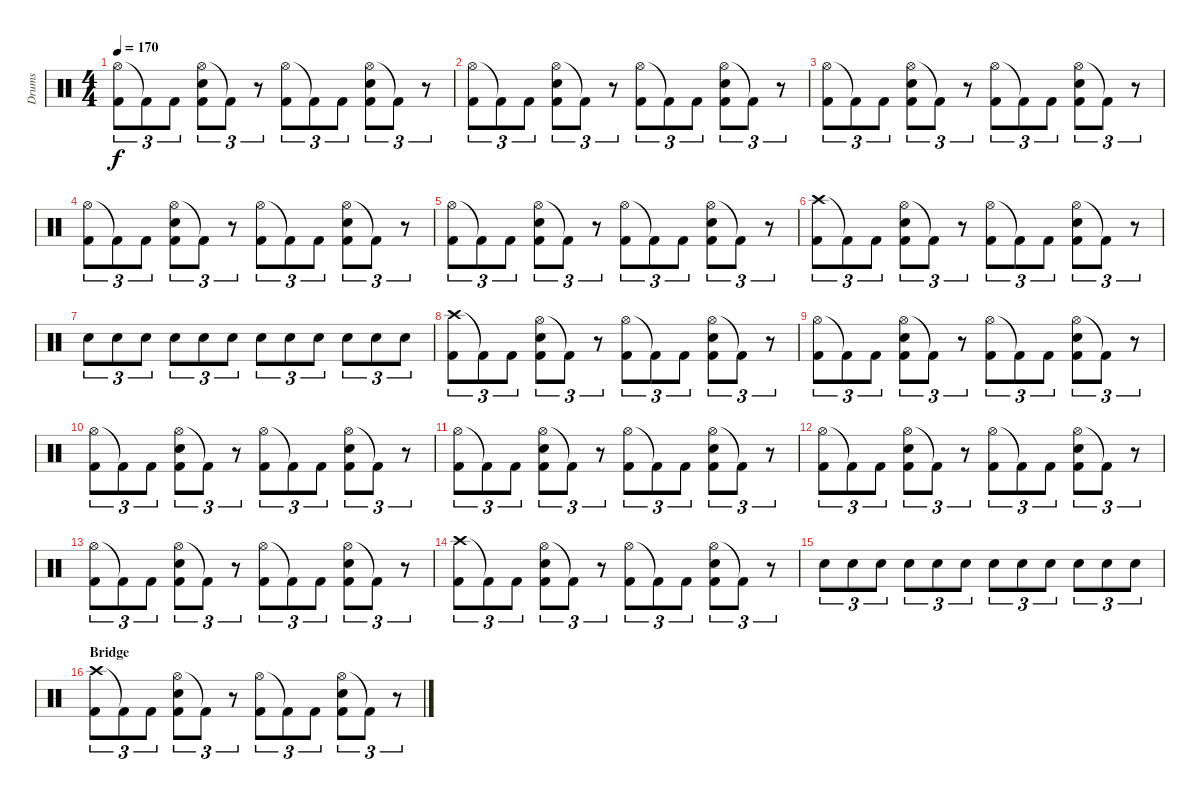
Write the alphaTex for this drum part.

\track ("Drums" "Drums") {instrument percussion}
\staff {score}
\articulation defaults
\ts (4 4)
\tempo 170
\clef neutral
\ks c
("Hi-Hat (open)" "Kick (hit) 2").8{tu (3 2) dy f} "Kick (hit) 2"{t}.8{tu (3 2)} "Kick (hit) 2".8{tu (3 2)} ("Hi-Hat (open)" "Snare (hit) 2" "Kick (hit) 2").8{tu (3 2)} "Kick (hit) 2"{t}.8{tu (3 2)} r.8{tu (3 2)} ("Hi-Hat (open)" "Kick (hit) 2").8{tu (3 2)} "Kick (hit) 2"{t}.8{tu (3 2)} "Kick (hit) 2".8{tu (3 2)} ("Hi-Hat (open)" "Snare (hit) 2" "Kick (hit) 2").8{tu (3 2)} "Kick (hit) 2"{t}.8{tu (3 2)} r.8{tu (3 2)} |
("Hi-Hat (open)" "Kick (hit) 2").8{tu (3 2)} "Kick (hit) 2"{t}.8{tu (3 2)} "Kick (hit) 2".8{tu (3 2)} ("Hi-Hat (open)" "Snare (hit) 2" "Kick (hit) 2").8{tu (3 2)} "Kick (hit) 2"{t}.8{tu (3 2)} r.8{tu (3 2)} ("Hi-Hat (open)" "Kick (hit) 2").8{tu (3 2)} "Kick (hit) 2"{t}.8{tu (3 2)} "Kick (hit) 2".8{tu (3 2)} ("Hi-Hat (open)" "Snare (hit) 2" "Kick (hit) 2").8{tu (3 2)} "Kick (hit) 2"{t}.8{tu (3 2)} r.8{tu (3 2)} |
("Hi-Hat (open)" "Kick (hit) 2").8{tu (3 2)} "Kick (hit) 2"{t}.8{tu (3 2)} "Kick (hit) 2".8{tu (3 2)} ("Hi-Hat (open)" "Snare (hit) 2" "Kick (hit) 2").8{tu (3 2)} "Kick (hit) 2"{t}.8{tu (3 2)} r.8{tu (3 2)} ("Hi-Hat (open)" "Kick (hit) 2").8{tu (3 2)} "Kick (hit) 2"{t}.8{tu (3 2)} "Kick (hit) 2".8{tu (3 2)} ("Hi-Hat (open)" "Snare (hit) 2" "Kick (hit) 2").8{tu (3 2)} "Kick (hit) 2"{t}.8{tu (3 2)} r.8{tu (3 2)} |
("Hi-Hat (open)" "Kick (hit) 2").8{tu (3 2)} "Kick (hit) 2"{t}.8{tu (3 2)} "Kick (hit) 2".8{tu (3 2)} ("Hi-Hat (open)" "Snare (hit) 2" "Kick (hit) 2").8{tu (3 2)} "Kick (hit) 2"{t}.8{tu (3 2)} r.8{tu (3 2)} ("Hi-Hat (open)" "Kick (hit) 2").8{tu (3 2)} "Kick (hit) 2"{t}.8{tu (3 2)} "Kick (hit) 2".8{tu (3 2)} ("Hi-Hat (open)" "Snare (hit) 2" "Kick (hit) 2").8{tu (3 2)} "Kick (hit) 2"{t}.8{tu (3 2)} r.8{tu (3 2)} |
("Hi-Hat (open)" "Kick (hit) 2").8{tu (3 2)} "Kick (hit) 2"{t}.8{tu (3 2)} "Kick (hit) 2".8{tu (3 2)} ("Hi-Hat (open)" "Snare (hit) 2" "Kick (hit) 2").8{tu (3 2)} "Kick (hit) 2"{t}.8{tu (3 2)} r.8{tu (3 2)} ("Hi-Hat (open)" "Kick (hit) 2").8{tu (3 2)} "Kick (hit) 2"{t}.8{tu (3 2)} "Kick (hit) 2".8{tu (3 2)} ("Hi-Hat (open)" "Snare (hit) 2" "Kick (hit) 2").8{tu (3 2)} "Kick (hit) 2"{t}.8{tu (3 2)} r.8{tu (3 2)} |
("Crash high (hit)" "Kick (hit) 2").8{tu (3 2)} "Kick (hit) 2"{t}.8{tu (3 2)} "Kick (hit) 2".8{tu (3 2)} ("Hi-Hat (open)" "Snare (hit) 2" "Kick (hit) 2").8{tu (3 2)} "Kick (hit) 2"{t}.8{tu (3 2)} r.8{tu (3 2)} ("Hi-Hat (open)" "Kick (hit) 2").8{tu (3 2)} "Kick (hit) 2"{t}.8{tu (3 2)} "Kick (hit) 2".8{tu (3 2)} ("Hi-Hat (open)" "Snare (hit) 2" "Kick (hit) 2").8{tu (3 2)} "Kick (hit) 2"{t}.8{tu (3 2)} r.8{tu (3 2)} |
"Snare (hit) 2".8{tu (3 2)} "Snare (hit) 2".8{tu (3 2)} "Snare (hit) 2".8{tu (3 2)} "Snare (hit) 2".8{tu (3 2)} "Snare (hit) 2".8{tu (3 2)} "Snare (hit) 2".8{tu (3 2)} "Snare (hit) 2".8{tu (3 2)} "Snare (hit) 2".8{tu (3 2)} "Snare (hit) 2".8{tu (3 2)} "Snare (hit) 2".8{tu (3 2)} "Snare (hit) 2".8{tu (3 2)} "Snare (hit) 2".8{tu (3 2)} |
("Crash high (hit)" "Kick (hit) 2").8{tu (3 2)} "Kick (hit) 2"{t}.8{tu (3 2)} "Kick (hit) 2".8{tu (3 2)} ("Hi-Hat (open)" "Snare (hit) 2" "Kick (hit) 2").8{tu (3 2)} "Kick (hit) 2"{t}.8{tu (3 2)} r.8{tu (3 2)} ("Hi-Hat (open)" "Kick (hit) 2").8{tu (3 2)} "Kick (hit) 2"{t}.8{tu (3 2)} "Kick (hit) 2".8{tu (3 2)} ("Hi-Hat (open)" "Snare (hit) 2" "Kick (hit) 2").8{tu (3 2)} "Kick (hit) 2"{t}.8{tu (3 2)} r.8{tu (3 2)} |
("Hi-Hat (open)" "Kick (hit) 2").8{tu (3 2)} "Kick (hit) 2"{t}.8{tu (3 2)} "Kick (hit) 2".8{tu (3 2)} ("Hi-Hat (open)" "Snare (hit) 2" "Kick (hit) 2").8{tu (3 2)} "Kick (hit) 2"{t}.8{tu (3 2)} r.8{tu (3 2)} ("Hi-Hat (open)" "Kick (hit) 2").8{tu (3 2)} "Kick (hit) 2"{t}.8{tu (3 2)} "Kick (hit) 2".8{tu (3 2)} ("Hi-Hat (open)" "Snare (hit) 2" "Kick (hit) 2").8{tu (3 2)} "Kick (hit) 2"{t}.8{tu (3 2)} r.8{tu (3 2)} |
("Hi-Hat (open)" "Kick (hit) 2").8{tu (3 2)} "Kick (hit) 2"{t}.8{tu (3 2)} "Kick (hit) 2".8{tu (3 2)} ("Hi-Hat (open)" "Snare (hit) 2" "Kick (hit) 2").8{tu (3 2)} "Kick (hit) 2"{t}.8{tu (3 2)} r.8{tu (3 2)} ("Hi-Hat (open)" "Kick (hit) 2").8{tu (3 2)} "Kick (hit) 2"{t}.8{tu (3 2)} "Kick (hit) 2".8{tu (3 2)} ("Hi-Hat (open)" "Snare (hit) 2" "Kick (hit) 2").8{tu (3 2)} "Kick (hit) 2"{t}.8{tu (3 2)} r.8{tu (3 2)} |
("Hi-Hat (open)" "Kick (hit) 2").8{tu (3 2)} "Kick (hit) 2"{t}.8{tu (3 2)} "Kick (hit) 2".8{tu (3 2)} ("Hi-Hat (open)" "Snare (hit) 2" "Kick (hit) 2").8{tu (3 2)} "Kick (hit) 2"{t}.8{tu (3 2)} r.8{tu (3 2)} ("Hi-Hat (open)" "Kick (hit) 2").8{tu (3 2)} "Kick (hit) 2"{t}.8{tu (3 2)} "Kick (hit) 2".8{tu (3 2)} ("Hi-Hat (open)" "Snare (hit) 2" "Kick (hit) 2").8{tu (3 2)} "Kick (hit) 2"{t}.8{tu (3 2)} r.8{tu (3 2)} |
("Hi-Hat (open)" "Kick (hit) 2").8{tu (3 2)} "Kick (hit) 2"{t}.8{tu (3 2)} "Kick (hit) 2".8{tu (3 2)} ("Hi-Hat (open)" "Snare (hit) 2" "Kick (hit) 2").8{tu (3 2)} "Kick (hit) 2"{t}.8{tu (3 2)} r.8{tu (3 2)} ("Hi-Hat (open)" "Kick (hit) 2").8{tu (3 2)} "Kick (hit) 2"{t}.8{tu (3 2)} "Kick (hit) 2".8{tu (3 2)} ("Hi-Hat (open)" "Snare (hit) 2" "Kick (hit) 2").8{tu (3 2)} "Kick (hit) 2"{t}.8{tu (3 2)} r.8{tu (3 2)} |
("Hi-Hat (open)" "Kick (hit) 2").8{tu (3 2)} "Kick (hit) 2"{t}.8{tu (3 2)} "Kick (hit) 2".8{tu (3 2)} ("Hi-Hat (open)" "Snare (hit) 2" "Kick (hit) 2").8{tu (3 2)} "Kick (hit) 2"{t}.8{tu (3 2)} r.8{tu (3 2)} ("Hi-Hat (open)" "Kick (hit) 2").8{tu (3 2)} "Kick (hit) 2"{t}.8{tu (3 2)} "Kick (hit) 2".8{tu (3 2)} ("Hi-Hat (open)" "Snare (hit) 2" "Kick (hit) 2").8{tu (3 2)} "Kick (hit) 2"{t}.8{tu (3 2)} r.8{tu (3 2)} |
("Crash high (hit)" "Kick (hit) 2").8{tu (3 2)} "Kick (hit) 2"{t}.8{tu (3 2)} "Kick (hit) 2".8{tu (3 2)} ("Hi-Hat (open)" "Snare (hit) 2" "Kick (hit) 2").8{tu (3 2)} "Kick (hit) 2"{t}.8{tu (3 2)} r.8{tu (3 2)} ("Hi-Hat (open)" "Kick (hit) 2").8{tu (3 2)} "Kick (hit) 2"{t}.8{tu (3 2)} "Kick (hit) 2".8{tu (3 2)} ("Hi-Hat (open)" "Snare (hit) 2" "Kick (hit) 2").8{tu (3 2)} "Kick (hit) 2"{t}.8{tu (3 2)} r.8{tu (3 2)} |
"Snare (hit) 2".8{tu (3 2)} "Snare (hit) 2".8{tu (3 2)} "Snare (hit) 2".8{tu (3 2)} "Snare (hit) 2".8{tu (3 2)} "Snare (hit) 2".8{tu (3 2)} "Snare (hit) 2".8{tu (3 2)} "Snare (hit) 2".8{tu (3 2)} "Snare (hit) 2".8{tu (3 2)} "Snare (hit) 2".8{tu (3 2)} "Snare (hit) 2".8{tu (3 2)} "Snare (hit) 2".8{tu (3 2)} "Snare (hit) 2".8{tu (3 2)} |
\section ("" "Bridge")
("Crash high (hit)" "Kick (hit) 2").8{tu (3 2)} "Kick (hit) 2"{t}.8{tu (3 2)} "Kick (hit) 2".8{tu (3 2)} ("Hi-Hat (open)" "Snare (hit) 2" "Kick (hit) 2").8{tu (3 2)} "Kick (hit) 2"{t}.8{tu (3 2)} r.8{tu (3 2)} ("Hi-Hat (open)" "Kick (hit) 2").8{tu (3 2)} "Kick (hit) 2"{t}.8{tu (3 2)} "Kick (hit) 2".8{tu (3 2)} ("Hi-Hat (open)" "Snare (hit) 2" "Kick (hit) 2").8{tu (3 2)} "Kick (hit) 2"{t}.8{tu (3 2)} r.8{tu (3 2)}
